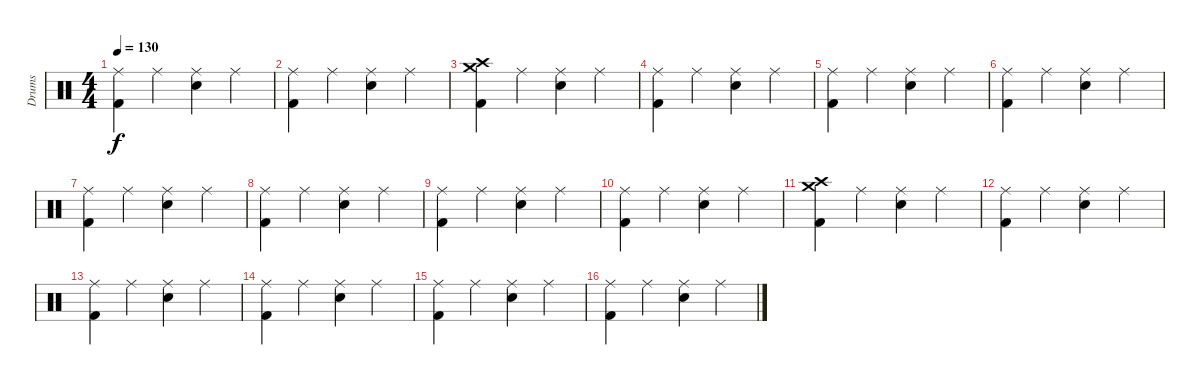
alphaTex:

\track ("Drums" "Drums") {instrument percussion}
\staff {score}
\articulation defaults
\ts (4 4)
\tempo 130
\clef neutral
\ks c
("Ride (middle)" "Kick (hit) 2").4{dy f} "Ride (middle)".4 ("Ride (middle)" "Electric Snare (hit)").4 "Ride (middle)".4 |
("Ride (middle)" "Kick (hit) 2").4 "Ride (middle)".4 ("Ride (middle)" "Electric Snare (hit)").4 "Ride (middle)".4 |
("Crash high (hit)" "Crash medium (hit)" "Kick (hit) 2").4 "Ride (middle)".4 ("Ride (middle)" "Electric Snare (hit)").4 "Ride (middle)".4 |
("Ride (middle)" "Kick (hit) 2").4 "Ride (middle)".4 ("Ride (middle)" "Electric Snare (hit)").4 "Ride (middle)".4 |
("Ride (middle)" "Kick (hit) 2").4 "Ride (middle)".4 ("Ride (middle)" "Electric Snare (hit)").4 "Ride (middle)".4 |
("Ride (middle)" "Kick (hit) 2").4 "Ride (middle)".4 ("Ride (middle)" "Electric Snare (hit)").4 "Ride (middle)".4 |
("Ride (middle)" "Kick (hit) 2").4 "Ride (middle)".4 ("Ride (middle)" "Electric Snare (hit)").4 "Ride (middle)".4 |
("Ride (middle)" "Kick (hit) 2").4 "Ride (middle)".4 ("Ride (middle)" "Electric Snare (hit)").4 "Ride (middle)".4 |
("Ride (middle)" "Kick (hit) 2").4 "Ride (middle)".4 ("Ride (middle)" "Electric Snare (hit)").4 "Ride (middle)".4 |
("Ride (middle)" "Kick (hit) 2").4 "Ride (middle)".4 ("Ride (middle)" "Electric Snare (hit)").4 "Ride (middle)".4 |
("Crash high (hit)" "Crash medium (hit)" "Kick (hit) 2").4 "Ride (middle)".4 ("Ride (middle)" "Electric Snare (hit)").4 "Ride (middle)".4 |
("Ride (middle)" "Kick (hit) 2").4 "Ride (middle)".4 ("Ride (middle)" "Electric Snare (hit)").4 "Ride (middle)".4 |
("Ride (middle)" "Kick (hit) 2").4 "Ride (middle)".4 ("Ride (middle)" "Electric Snare (hit)").4 "Ride (middle)".4 |
("Ride (middle)" "Kick (hit) 2").4 "Ride (middle)".4 ("Ride (middle)" "Electric Snare (hit)").4 "Ride (middle)".4 |
("Ride (middle)" "Kick (hit) 2").4 "Ride (middle)".4 ("Ride (middle)" "Electric Snare (hit)").4 "Ride (middle)".4 |
("Ride (middle)" "Kick (hit) 2").4 "Ride (middle)".4 ("Ride (middle)" "Electric Snare (hit)").4 "Ride (middle)".4
